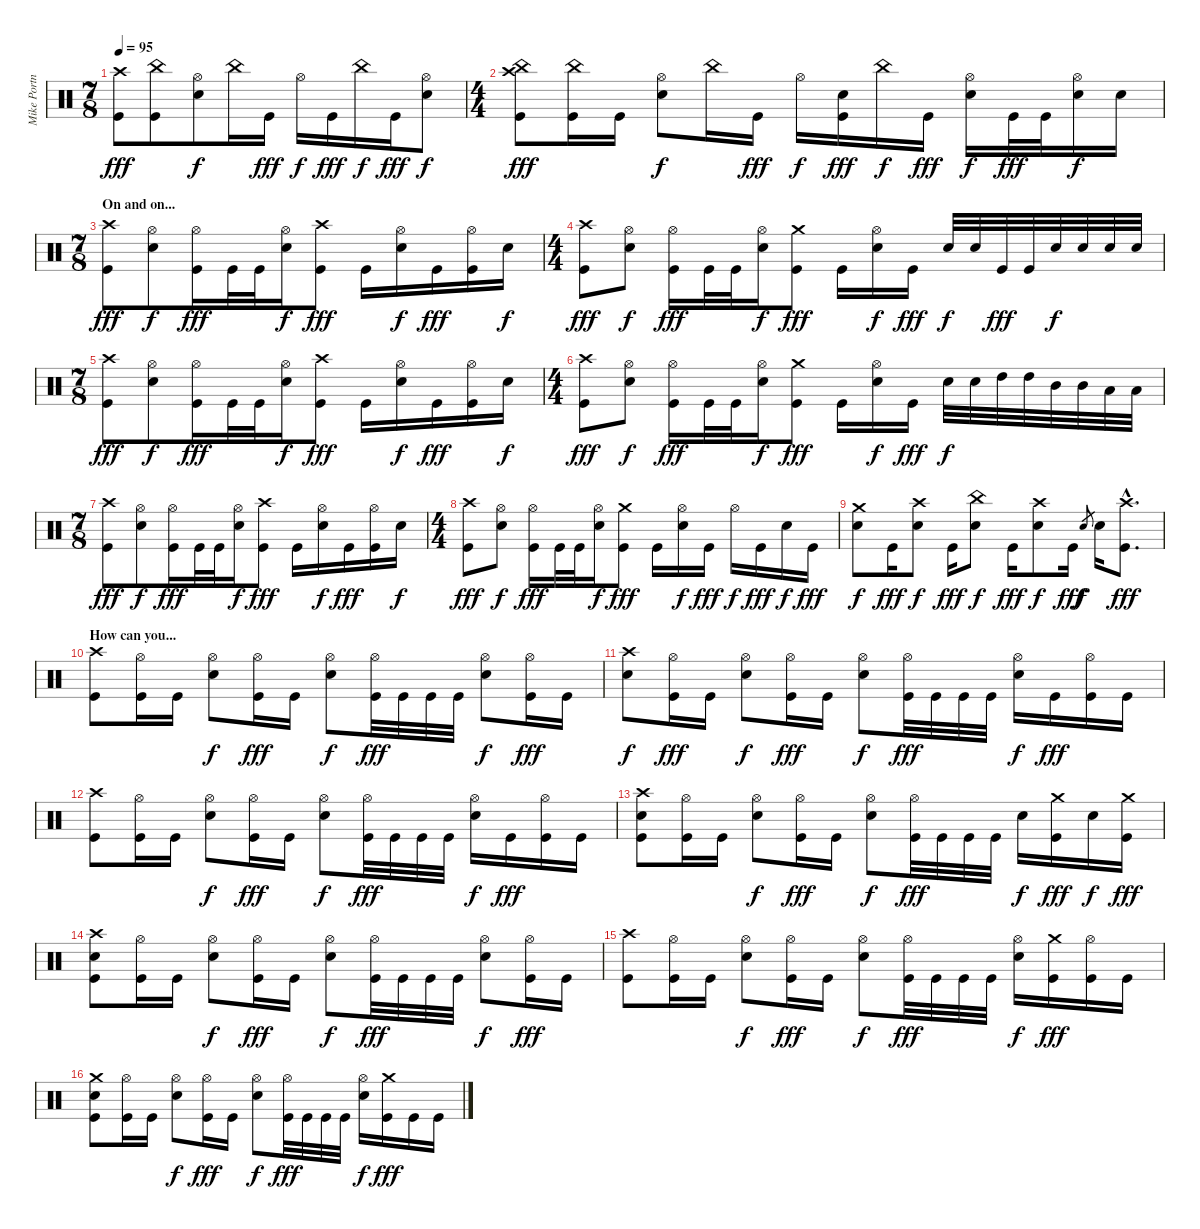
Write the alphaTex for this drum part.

\track ("Mike Portnoy" "Mike Portn") {instrument percussion}
\staff {score}
\articulation defaults
\ts (7 8)
\tempo 95
\clef neutral
\ks c
("Crash high (hit)" "Kick (hit)").8{dy fff} ("China (hit)" "Kick (hit)").8 ("Hi-Hat (open)" "Electric Snare (hit)").8{dy f} "China (hit)".16 "Kick (hit)".16{dy fff} "Hi-Hat (open)".16{dy f} "Kick (hit)".16{dy fff} "China (hit)".16{dy f} "Kick (hit)".16{dy fff} ("Hi-Hat (open)" "Electric Snare (hit)").8{dy f} |
\ts (4 4)
("Crash high (hit)" "China (hit)" "Kick (hit)").8{dy fff} ("China (hit)" "Kick (hit)").16 "Kick (hit)".16 ("Hi-Hat (open)" "Electric Snare (hit)").8{dy f} "China (hit)".16 "Kick (hit)".16{dy fff} "Hi-Hat (open)".16{dy f} ("Electric Snare (hit)" "Kick (hit)").16{dy fff} "China (hit)".16{dy f} "Kick (hit)".16{dy fff} ("Hi-Hat (open)" "Electric Snare (hit)").16{dy f} "Kick (hit)".32{dy fff} "Kick (hit)".32 ("Hi-Hat (open)" "Electric Snare (hit)").16{dy f} "Electric Snare (hit)".16 |
\ts (7 8)
\section ("" "On and on...")
("Crash high (hit)" "Kick (hit)").8{dy fff} ("Hi-Hat (open)" "Electric Snare (hit)").8{dy f} ("Hi-Hat (open)" "Kick (hit)").16{dy fff} "Kick (hit)".32 "Kick (hit)".32 ("Hi-Hat (open)" "Electric Snare (hit)").16{dy f} ("Crash high (hit)" "Kick (hit)").8{dy fff} "Kick (hit)".16 ("Hi-Hat (open)" "Electric Snare (hit)").16{dy f} "Kick (hit)".16{dy fff} ("Hi-Hat (open)" "Kick (hit)").16 "Electric Snare (hit)".16{dy f} |
\ts (4 4)
("Crash high (hit)" "Kick (hit)").8{dy fff} ("Hi-Hat (open)" "Electric Snare (hit)").8{dy f} ("Hi-Hat (open)" "Kick (hit)").16{dy fff} "Kick (hit)".32 "Kick (hit)".32 ("Hi-Hat (open)" "Electric Snare (hit)").16{dy f} ("Crash medium (hit)" "Kick (hit)").8{dy fff} "Kick (hit)".16 ("Hi-Hat (open)" "Electric Snare (hit)").16{dy f} "Kick (hit)".16{dy fff} "Electric Snare (hit)".32{dy f} "Electric Snare (hit)".32 "Kick (hit)".32{dy fff} "Kick (hit)".32 "Electric Snare (hit)".32{dy f} "Electric Snare (hit)".32 "Electric Snare (hit)".32 "Electric Snare (hit)".32 |
\ts (7 8)
("Crash high (hit)" "Kick (hit)").8{dy fff} ("Hi-Hat (open)" "Electric Snare (hit)").8{dy f} ("Hi-Hat (open)" "Kick (hit)").16{dy fff} "Kick (hit)".32 "Kick (hit)".32 ("Hi-Hat (open)" "Electric Snare (hit)").16{dy f} ("Crash high (hit)" "Kick (hit)").8{dy fff} "Kick (hit)".16 ("Hi-Hat (open)" "Electric Snare (hit)").16{dy f} "Kick (hit)".16{dy fff} ("Hi-Hat (open)" "Kick (hit)").16 "Electric Snare (hit)".16{dy f} |
\ts (4 4)
("Crash high (hit)" "Kick (hit)").8{dy fff} ("Hi-Hat (open)" "Electric Snare (hit)").8{dy f} ("Hi-Hat (open)" "Kick (hit)").16{dy fff} "Kick (hit)".32 "Kick (hit)".32 ("Hi-Hat (open)" "Electric Snare (hit)").16{dy f} ("Crash medium (hit)" "Kick (hit)").8{dy fff} "Kick (hit)".16 ("Hi-Hat (open)" "Electric Snare (hit)").16{dy f} "Kick (hit)".16{dy fff} "Electric Snare (hit)".32{dy f} "Electric Snare (hit)".32 "High Tom (hit)".32 "High Tom (hit)".32 "Mid Tom (hit)".32 "Mid Tom (hit)".32 "Low Tom (hit)".32 "Low Tom (hit)".32 |
\ts (7 8)
("Crash high (hit)" "Kick (hit)").8{dy fff} ("Hi-Hat (open)" "Electric Snare (hit)").8{dy f} ("Hi-Hat (open)" "Kick (hit)").16{dy fff} "Kick (hit)".32 "Kick (hit)".32 ("Hi-Hat (open)" "Electric Snare (hit)").16{dy f} ("Crash high (hit)" "Kick (hit)").8{dy fff} "Kick (hit)".16 ("Hi-Hat (open)" "Electric Snare (hit)").16{dy f} "Kick (hit)".16{dy fff} ("Hi-Hat (open)" "Kick (hit)").16 "Electric Snare (hit)".16{dy f} |
\ts (4 4)
("Crash high (hit)" "Kick (hit)").8{dy fff} ("Hi-Hat (open)" "Electric Snare (hit)").8{dy f} ("Hi-Hat (open)" "Kick (hit)").16{dy fff} "Kick (hit)".32 "Kick (hit)".32 ("Hi-Hat (open)" "Electric Snare (hit)").16{dy f} ("Crash medium (hit)" "Kick (hit)").8{dy fff} "Kick (hit)".16 ("Hi-Hat (open)" "Electric Snare (hit)").16{dy f} "Kick (hit)".16{dy fff} "Hi-Hat (open)".16{dy f} "Kick (hit)".16{dy fff} "Electric Snare (hit)".16{dy f} "Kick (hit)".16{dy fff} |
("Crash medium (hit)" "Electric Snare (hit)").8{dy f} "Kick (hit)".16{dy fff} ("Crash high (hit)" "Electric Snare (hit)").8{dy f} "Kick (hit)".16{dy fff} ("China (hit)" "Electric Snare (hit)").8{dy f} "Kick (hit)".16{dy fff} ("Crash high (hit)" "Electric Snare (hit)").8{dy f} "Kick (hit)".16{dy fff} "Electric Snare (hit)".8{gr dy f} "Electric Snare (hit)".16 ("Crash high (hit)"{hac} "Kick (hit)"{hac}).8{d dy fff} |
\section ("" "How can you...")
("Crash high (hit)" "Kick (hit)").8 ("Hi-Hat (open)" "Kick (hit)").16 "Kick (hit)".16 ("Hi-Hat (open)" "Electric Snare (hit)").8{dy f} ("Hi-Hat (open)" "Kick (hit)").16{dy fff} "Kick (hit)".16 ("Hi-Hat (open)" "Electric Snare (hit)").8{dy f} ("Hi-Hat (open)" "Kick (hit)").32{dy fff} "Kick (hit)".32 "Kick (hit)".32 "Kick (hit)".32 ("Hi-Hat (open)" "Electric Snare (hit)").8{dy f} ("Hi-Hat (open)" "Kick (hit)").16{dy fff} "Kick (hit)".16 |
("Crash high (hit)" "Electric Snare (hit)").8{dy f} ("Hi-Hat (open)" "Kick (hit)").16{dy fff} "Kick (hit)".16 ("Hi-Hat (open)" "Electric Snare (hit)").8{dy f} ("Hi-Hat (open)" "Kick (hit)").16{dy fff} "Kick (hit)".16 ("Hi-Hat (open)" "Electric Snare (hit)").8{dy f} ("Hi-Hat (open)" "Kick (hit)").32{dy fff} "Kick (hit)".32 "Kick (hit)".32 "Kick (hit)".32 ("Hi-Hat (open)" "Electric Snare (hit)").16{dy f} "Kick (hit)".16{dy fff} ("Hi-Hat (open)" "Kick (hit)").16 "Kick (hit)".16 |
("Crash high (hit)" "Kick (hit)").8 ("Hi-Hat (open)" "Kick (hit)").16 "Kick (hit)".16 ("Hi-Hat (open)" "Electric Snare (hit)").8{dy f} ("Hi-Hat (open)" "Kick (hit)").16{dy fff} "Kick (hit)".16 ("Hi-Hat (open)" "Electric Snare (hit)").8{dy f} ("Hi-Hat (open)" "Kick (hit)").32{dy fff} "Kick (hit)".32 "Kick (hit)".32 "Kick (hit)".32 ("Hi-Hat (open)" "Electric Snare (hit)").16{dy f} "Kick (hit)".16{dy fff} ("Hi-Hat (open)" "Kick (hit)").16 "Kick (hit)".16 |
("Crash high (hit)" "Electric Snare (hit)" "Kick (hit)").8 ("Hi-Hat (open)" "Kick (hit)").16 "Kick (hit)".16 ("Hi-Hat (open)" "Electric Snare (hit)").8{dy f} ("Hi-Hat (open)" "Kick (hit)").16{dy fff} "Kick (hit)".16 ("Hi-Hat (open)" "Electric Snare (hit)").8{dy f} ("Hi-Hat (open)" "Kick (hit)").32{dy fff} "Kick (hit)".32 "Kick (hit)".32 "Kick (hit)".32 "Electric Snare (hit)".16{dy f} ("Crash medium (hit)" "Kick (hit)").16{dy fff} "Electric Snare (hit)".16{dy f} ("Crash medium (hit)" "Kick (hit)").16{dy fff} |
("Crash high (hit)" "Electric Snare (hit)" "Kick (hit)").8 ("Hi-Hat (open)" "Kick (hit)").16 "Kick (hit)".16 ("Hi-Hat (open)" "Electric Snare (hit)").8{dy f} ("Hi-Hat (open)" "Kick (hit)").16{dy fff} "Kick (hit)".16 ("Hi-Hat (open)" "Electric Snare (hit)").8{dy f} ("Hi-Hat (open)" "Kick (hit)").32{dy fff} "Kick (hit)".32 "Kick (hit)".32 "Kick (hit)".32 ("Hi-Hat (open)" "Electric Snare (hit)").8{dy f} ("Hi-Hat (open)" "Kick (hit)").16{dy fff} "Kick (hit)".16 |
("Crash high (hit)" "Kick (hit)").8 ("Hi-Hat (open)" "Kick (hit)").16 "Kick (hit)".16 ("Hi-Hat (open)" "Electric Snare (hit)").8{dy f} ("Hi-Hat (open)" "Kick (hit)").16{dy fff} "Kick (hit)".16 ("Hi-Hat (open)" "Electric Snare (hit)").8{dy f} ("Hi-Hat (open)" "Kick (hit)").32{dy fff} "Kick (hit)".32 "Kick (hit)".32 "Kick (hit)".32 ("Hi-Hat (open)" "Electric Snare (hit)").16{dy f} ("Crash medium (hit)" "Kick (hit)").16{dy fff} ("Hi-Hat (open)" "Kick (hit)").16 "Kick (hit)".16 |
("Crash medium (hit)" "Electric Snare (hit)" "Kick (hit)").8 ("Hi-Hat (open)" "Kick (hit)").16 "Kick (hit)".16 ("Hi-Hat (open)" "Electric Snare (hit)").8{dy f} ("Hi-Hat (open)" "Kick (hit)").16{dy fff} "Kick (hit)".16 ("Hi-Hat (open)" "Electric Snare (hit)").8{dy f} ("Hi-Hat (open)" "Kick (hit)").32{dy fff} "Kick (hit)".32 "Kick (hit)".32 "Kick (hit)".32 ("Hi-Hat (open)" "Electric Snare (hit)").16{dy f} ("Crash medium (hit)" "Kick (hit)").16{dy fff} "Kick (hit)".16 "Kick (hit)".16
